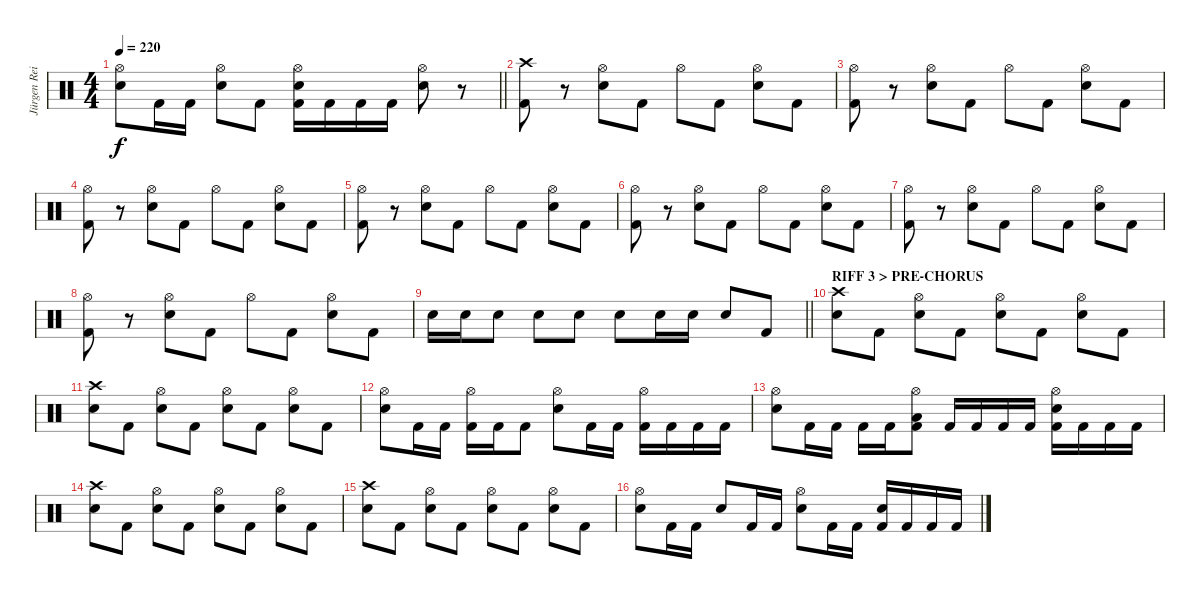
\track ("Jürgen Reil" "Jürgen Rei") {instrument percussion}
\staff {score}
\articulation defaults
\ts (4 4)
\tempo 220
\clef neutral
\barLineRight lightlight
\ks c
("Hi-Hat (open)" "Electric Snare (hit)").8{dy f} "Kick (hit) 2".16 "Kick (hit) 2".16 ("Hi-Hat (open)" "Electric Snare (hit)").8 "Kick (hit) 2".8 ("Hi-Hat (open)" "Electric Snare (hit)" "Kick (hit) 2").16 "Kick (hit) 2".16 "Kick (hit) 2".16 "Kick (hit) 2".16 ("Hi-Hat (open)" "Electric Snare (hit)").8 r.8 |
("Crash high (hit)" "Kick (hit) 2").8 r.8 ("Hi-Hat (open)" "Electric Snare (hit)").8 "Kick (hit) 2".8 "Hi-Hat (open)".8 "Kick (hit) 2".8 ("Hi-Hat (open)" "Electric Snare (hit)").8 "Kick (hit) 2".8 |
("Hi-Hat (open)" "Kick (hit) 2").8 r.8 ("Hi-Hat (open)" "Electric Snare (hit)").8 "Kick (hit) 2".8 "Hi-Hat (open)".8 "Kick (hit) 2".8 ("Hi-Hat (open)" "Electric Snare (hit)").8 "Kick (hit) 2".8 |
("Hi-Hat (open)" "Kick (hit) 2").8 r.8 ("Hi-Hat (open)" "Electric Snare (hit)").8 "Kick (hit) 2".8 "Hi-Hat (open)".8 "Kick (hit) 2".8 ("Hi-Hat (open)" "Electric Snare (hit)").8 "Kick (hit) 2".8 |
("Hi-Hat (open)" "Kick (hit) 2").8 r.8 ("Hi-Hat (open)" "Electric Snare (hit)").8 "Kick (hit) 2".8 "Hi-Hat (open)".8 "Kick (hit) 2".8 ("Hi-Hat (open)" "Electric Snare (hit)").8 "Kick (hit) 2".8 |
("Hi-Hat (open)" "Kick (hit) 2").8 r.8 ("Hi-Hat (open)" "Electric Snare (hit)").8 "Kick (hit) 2".8 "Hi-Hat (open)".8 "Kick (hit) 2".8 ("Hi-Hat (open)" "Electric Snare (hit)").8 "Kick (hit) 2".8 |
("Hi-Hat (open)" "Kick (hit) 2").8 r.8 ("Hi-Hat (open)" "Electric Snare (hit)").8 "Kick (hit) 2".8 "Hi-Hat (open)".8 "Kick (hit) 2".8 ("Hi-Hat (open)" "Electric Snare (hit)").8 "Kick (hit) 2".8 |
("Hi-Hat (open)" "Kick (hit) 2").8 r.8 ("Hi-Hat (open)" "Electric Snare (hit)").8 "Kick (hit) 2".8 "Hi-Hat (open)".8 "Kick (hit) 2".8 ("Hi-Hat (open)" "Electric Snare (hit)").8 "Kick (hit) 2".8 |
\barLineRight lightlight "Electric Snare (hit)".16 "Electric Snare (hit)".16 "Electric Snare (hit)".8 "Electric Snare (hit)".8 "Electric Snare (hit)".8 "Electric Snare (hit)".8 "Electric Snare (hit)".16 "Electric Snare (hit)".16 "Electric Snare (hit)".8 "Kick (hit) 2".8
|
\section ("" "RIFF 3 > PRE-CHORUS")
("Crash high (hit)" "Electric Snare (hit)").8 "Kick (hit) 2".8 ("Hi-Hat (open)" "Electric Snare (hit)").8 "Kick (hit) 2".8 ("Hi-Hat (open)" "Electric Snare (hit)").8 "Kick (hit) 2".8 ("Hi-Hat (open)" "Electric Snare (hit)").8 "Kick (hit) 2".8 |
("Crash high (hit)" "Electric Snare (hit)").8 "Kick (hit) 2".8 ("Hi-Hat (open)" "Electric Snare (hit)").8 "Kick (hit) 2".8 ("Hi-Hat (open)" "Electric Snare (hit)").8 "Kick (hit) 2".8 ("Hi-Hat (open)" "Electric Snare (hit)").8 "Kick (hit) 2".8 |
("Hi-Hat (open)" "Electric Snare (hit)").8 "Kick (hit) 2".16 "Kick (hit) 2".16 ("Hi-Hat (open)" "Kick (hit) 2").16 "Kick (hit) 2".16 "Kick (hit) 2".8 ("Hi-Hat (open)" "Electric Snare (hit)").8 "Kick (hit) 2".16 "Kick (hit) 2".16 ("Hi-Hat (open)" "Kick (hit) 2").16 "Kick (hit) 2".16 "Kick (hit) 2".16 "Kick (hit) 2".16 |
("Hi-Hat (open)" "Electric Snare (hit)").8 "Kick (hit) 2".16 "Kick (hit) 2".16 "Kick (hit) 2".16 "Kick (hit) 2".16 ("Hi-Hat (open)" "Low Tom (hit)" "Kick (hit) 2").8 "Kick (hit) 2".16 "Kick (hit) 2".16 "Kick (hit) 2".16 "Kick (hit) 2".16 ("Hi-Hat (open)" "Electric Snare (hit)" "Kick (hit) 2").16 "Kick (hit) 2".16 "Kick (hit) 2".16 "Kick (hit) 2".16 |
("Crash high (hit)" "Electric Snare (hit)").8 "Kick (hit) 2".8 ("Hi-Hat (open)" "Electric Snare (hit)").8 "Kick (hit) 2".8 ("Hi-Hat (open)" "Electric Snare (hit)").8 "Kick (hit) 2".8 ("Hi-Hat (open)" "Electric Snare (hit)").8 "Kick (hit) 2".8 |
("Crash high (hit)" "Electric Snare (hit)").8 "Kick (hit) 2".8 ("Hi-Hat (open)" "Electric Snare (hit)").8 "Kick (hit) 2".8 ("Hi-Hat (open)" "Electric Snare (hit)").8 "Kick (hit) 2".8 ("Hi-Hat (open)" "Electric Snare (hit)").8 "Kick (hit) 2".8 |
("Hi-Hat (open)" "Electric Snare (hit)").8 "Kick (hit) 2".16 "Kick (hit) 2".16 "Electric Snare (hit)".8 "Kick (hit) 2".16 "Kick (hit) 2".16 ("Hi-Hat (open)" "Electric Snare (hit)").8 "Kick (hit) 2".16 "Kick (hit) 2".16 ("Electric Snare (hit)" "Kick (hit) 2").16 "Kick (hit) 2".16 "Kick (hit) 2".16 "Kick (hit) 2".16
